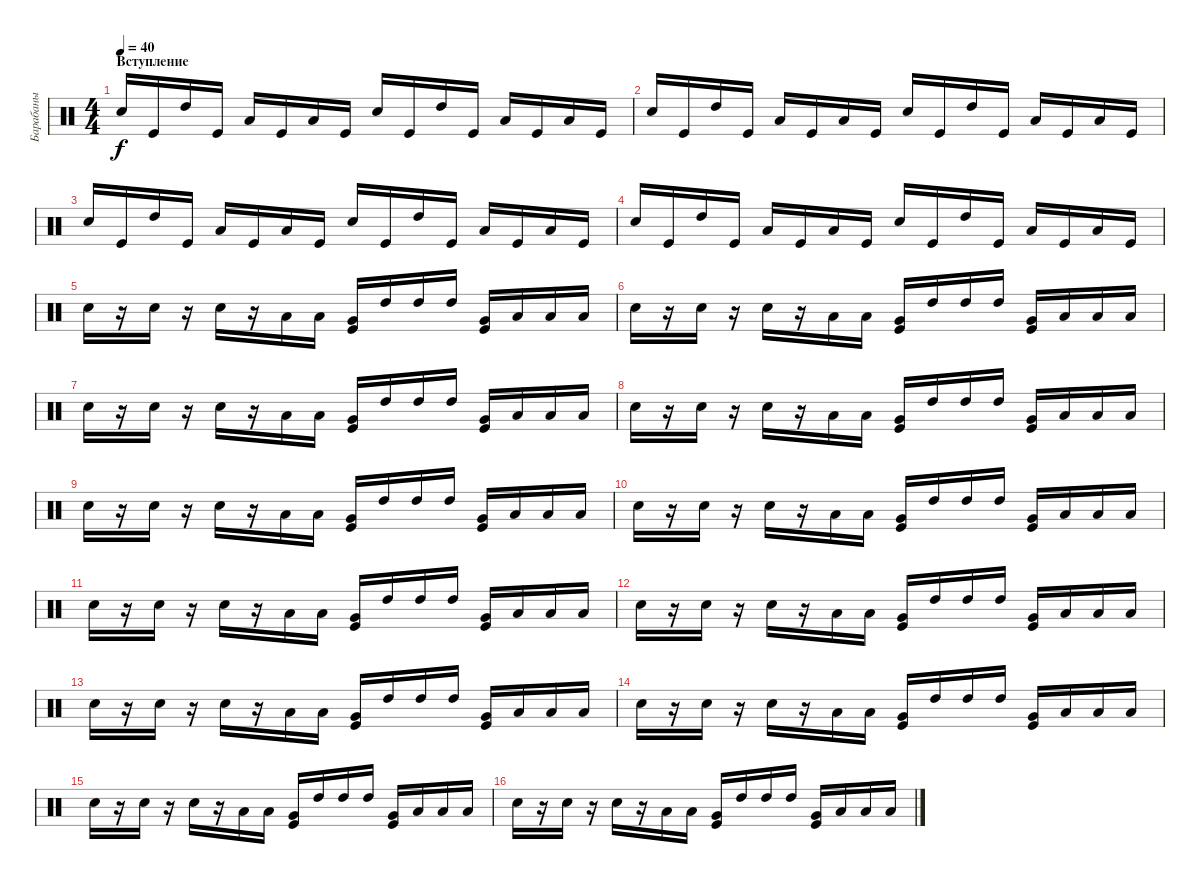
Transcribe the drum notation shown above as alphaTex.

\track ("Барабаны" "Барабаны") {instrument percussion}
\staff {score}
\articulation defaults
\ts (4 4)
\section ("" "Вступление")
\tempo 40
\tempo 118
\tempo 40
\clef neutral
\ks c "Snare (hit) 2".16{dy f} "Kick (hit)".16 "High Tom (hit)".16 "Kick (hit)".16 "Low Tom (hit)".16 "Kick (hit)".16 "Low Floor Tom (hit)".16 "Kick (hit)".16 "Snare (hit) 2".16 "Kick (hit)".16 "High Tom (hit)".16 "Kick (hit)".16 "Low Tom (hit)".16 "Kick (hit)".16 "Low Floor Tom (hit)".16 "Kick (hit)".16
|
"Snare (hit) 2".16 "Kick (hit)".16 "High Tom (hit)".16 "Kick (hit)".16 "Low Tom (hit)".16 "Kick (hit)".16 "Low Floor Tom (hit)".16 "Kick (hit)".16 "Snare (hit) 2".16 "Kick (hit)".16 "High Tom (hit)".16 "Kick (hit)".16 "Low Tom (hit)".16 "Kick (hit)".16 "Low Floor Tom (hit)".16 "Kick (hit)".16 |
"Snare (hit) 2".16 "Kick (hit)".16 "High Tom (hit)".16 "Kick (hit)".16 "Low Tom (hit)".16 "Kick (hit)".16 "Low Floor Tom (hit)".16 "Kick (hit)".16 "Snare (hit) 2".16 "Kick (hit)".16 "High Tom (hit)".16 "Kick (hit)".16 "Low Tom (hit)".16 "Kick (hit)".16 "Low Floor Tom (hit)".16 "Kick (hit)".16 |
"Snare (hit) 2".16 "Kick (hit)".16 "High Tom (hit)".16 "Kick (hit)".16 "Low Tom (hit)".16 "Kick (hit)".16 "Low Floor Tom (hit)".16 "Kick (hit)".16 "Snare (hit) 2".16 "Kick (hit)".16 "High Tom (hit)".16 "Kick (hit)".16 "Low Tom (hit)".16 "Kick (hit)".16 "Low Floor Tom (hit)".16 "Kick (hit)".16 |
"Snare (hit) 2".16 r.16 "Snare (hit) 2".16 r.16 "Snare (hit) 2".16 r.16 "Low Floor Tom (hit)".16 "Low Floor Tom (hit)".16 ("Kick (hit)" "Very Low Tom (hit)").16 "High Tom (hit)".16 "High Tom (hit)".16 "High Tom (hit)".16 ("Kick (hit)" "Very Low Tom (hit)").16 "Low Floor Tom (hit)".16 "Low Floor Tom (hit)".16 "Low Floor Tom (hit)".16 |
"Snare (hit) 2".16 r.16 "Snare (hit) 2".16 r.16 "Snare (hit) 2".16 r.16 "Low Floor Tom (hit)".16 "Low Floor Tom (hit)".16 ("Kick (hit)" "Very Low Tom (hit)").16 "High Tom (hit)".16 "High Tom (hit)".16 "High Tom (hit)".16 ("Kick (hit)" "Very Low Tom (hit)").16 "Low Floor Tom (hit)".16 "Low Floor Tom (hit)".16 "Low Floor Tom (hit)".16 |
"Snare (hit) 2".16 r.16 "Snare (hit) 2".16 r.16 "Snare (hit) 2".16 r.16 "Low Floor Tom (hit)".16 "Low Floor Tom (hit)".16 ("Kick (hit)" "Very Low Tom (hit)").16 "High Tom (hit)".16 "High Tom (hit)".16 "High Tom (hit)".16 ("Kick (hit)" "Very Low Tom (hit)").16 "Low Floor Tom (hit)".16 "Low Floor Tom (hit)".16 "Low Floor Tom (hit)".16 |
"Snare (hit) 2".16 r.16 "Snare (hit) 2".16 r.16 "Snare (hit) 2".16 r.16 "Low Floor Tom (hit)".16 "Low Floor Tom (hit)".16 ("Kick (hit)" "Very Low Tom (hit)").16 "High Tom (hit)".16 "High Tom (hit)".16 "High Tom (hit)".16 ("Kick (hit)" "Very Low Tom (hit)").16 "Low Floor Tom (hit)".16 "Low Floor Tom (hit)".16 "Low Floor Tom (hit)".16 |
"Snare (hit) 2".16 r.16 "Snare (hit) 2".16 r.16 "Snare (hit) 2".16 r.16 "Low Floor Tom (hit)".16 "Low Floor Tom (hit)".16 ("Kick (hit)" "Very Low Tom (hit)").16 "High Tom (hit)".16 "High Tom (hit)".16 "High Tom (hit)".16 ("Kick (hit)" "Very Low Tom (hit)").16 "Low Floor Tom (hit)".16 "Low Floor Tom (hit)".16 "Low Floor Tom (hit)".16 |
"Snare (hit) 2".16 r.16 "Snare (hit) 2".16 r.16 "Snare (hit) 2".16 r.16 "Low Floor Tom (hit)".16 "Low Floor Tom (hit)".16 ("Kick (hit)" "Very Low Tom (hit)").16 "High Tom (hit)".16 "High Tom (hit)".16 "High Tom (hit)".16 ("Kick (hit)" "Very Low Tom (hit)").16 "Low Floor Tom (hit)".16 "Low Floor Tom (hit)".16 "Low Floor Tom (hit)".16 |
"Snare (hit) 2".16 r.16 "Snare (hit) 2".16 r.16 "Snare (hit) 2".16 r.16 "Low Floor Tom (hit)".16 "Low Floor Tom (hit)".16 ("Kick (hit)" "Very Low Tom (hit)").16 "High Tom (hit)".16 "High Tom (hit)".16 "High Tom (hit)".16 ("Kick (hit)" "Very Low Tom (hit)").16 "Low Floor Tom (hit)".16 "Low Floor Tom (hit)".16 "Low Floor Tom (hit)".16 |
"Snare (hit) 2".16 r.16 "Snare (hit) 2".16 r.16 "Snare (hit) 2".16 r.16 "Low Floor Tom (hit)".16 "Low Floor Tom (hit)".16 ("Kick (hit)" "Very Low Tom (hit)").16 "High Tom (hit)".16 "High Tom (hit)".16 "High Tom (hit)".16 ("Kick (hit)" "Very Low Tom (hit)").16 "Low Floor Tom (hit)".16 "Low Floor Tom (hit)".16 "Low Floor Tom (hit)".16 |
"Snare (hit) 2".16 r.16 "Snare (hit) 2".16 r.16 "Snare (hit) 2".16 r.16 "Low Floor Tom (hit)".16 "Low Floor Tom (hit)".16 ("Kick (hit)" "Very Low Tom (hit)").16 "High Tom (hit)".16 "High Tom (hit)".16 "High Tom (hit)".16 ("Kick (hit)" "Very Low Tom (hit)").16 "Low Floor Tom (hit)".16 "Low Floor Tom (hit)".16 "Low Floor Tom (hit)".16 |
"Snare (hit) 2".16 r.16 "Snare (hit) 2".16 r.16 "Snare (hit) 2".16 r.16 "Low Floor Tom (hit)".16 "Low Floor Tom (hit)".16 ("Kick (hit)" "Very Low Tom (hit)").16 "High Tom (hit)".16 "High Tom (hit)".16 "High Tom (hit)".16 ("Kick (hit)" "Very Low Tom (hit)").16 "Low Floor Tom (hit)".16 "Low Floor Tom (hit)".16 "Low Floor Tom (hit)".16 |
"Snare (hit) 2".16 r.16 "Snare (hit) 2".16 r.16 "Snare (hit) 2".16 r.16 "Low Floor Tom (hit)".16 "Low Floor Tom (hit)".16 ("Kick (hit)" "Very Low Tom (hit)").16 "High Tom (hit)".16 "High Tom (hit)".16 "High Tom (hit)".16 ("Kick (hit)" "Very Low Tom (hit)").16 "Low Floor Tom (hit)".16 "Low Floor Tom (hit)".16 "Low Floor Tom (hit)".16 |
"Snare (hit) 2".16 r.16 "Snare (hit) 2".16 r.16 "Snare (hit) 2".16 r.16 "Low Floor Tom (hit)".16 "Low Floor Tom (hit)".16 ("Kick (hit)" "Very Low Tom (hit)").16 "High Tom (hit)".16 "High Tom (hit)".16 "High Tom (hit)".16 ("Kick (hit)" "Very Low Tom (hit)").16 "Low Floor Tom (hit)".16 "Low Floor Tom (hit)".16 "Low Floor Tom (hit)".16
